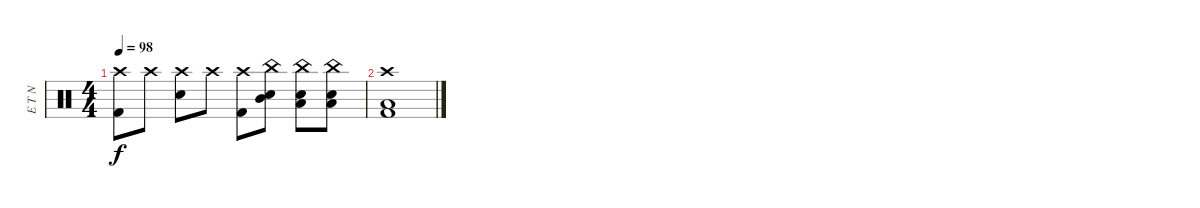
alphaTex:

\track ("E T N" "E T N") {instrument percussion}
\staff {score}
\articulation defaults
\ts (4 4)
\tempo 98
\clef neutral
\ks c
("Crash high (hit)" "Kick (hit) 2").8{dy f} "Crash high (hit)".8 ("Crash high (hit)" "Electric Snare (hit)").8 "Crash high (hit)".8 ("Crash high (hit)" "Kick (hit) 2").8 ("China (hit)" "Mid Tom (hit)" "Electric Snare (hit)").8 ("China (hit)" "Low Tom (hit)" "Electric Snare (hit)").8 ("China (hit)" "Low Floor Tom (hit)" "Electric Snare (hit)").8 |
("Crash high (hit)" "Low Floor Tom (hit)" "Kick (hit) 2").1
